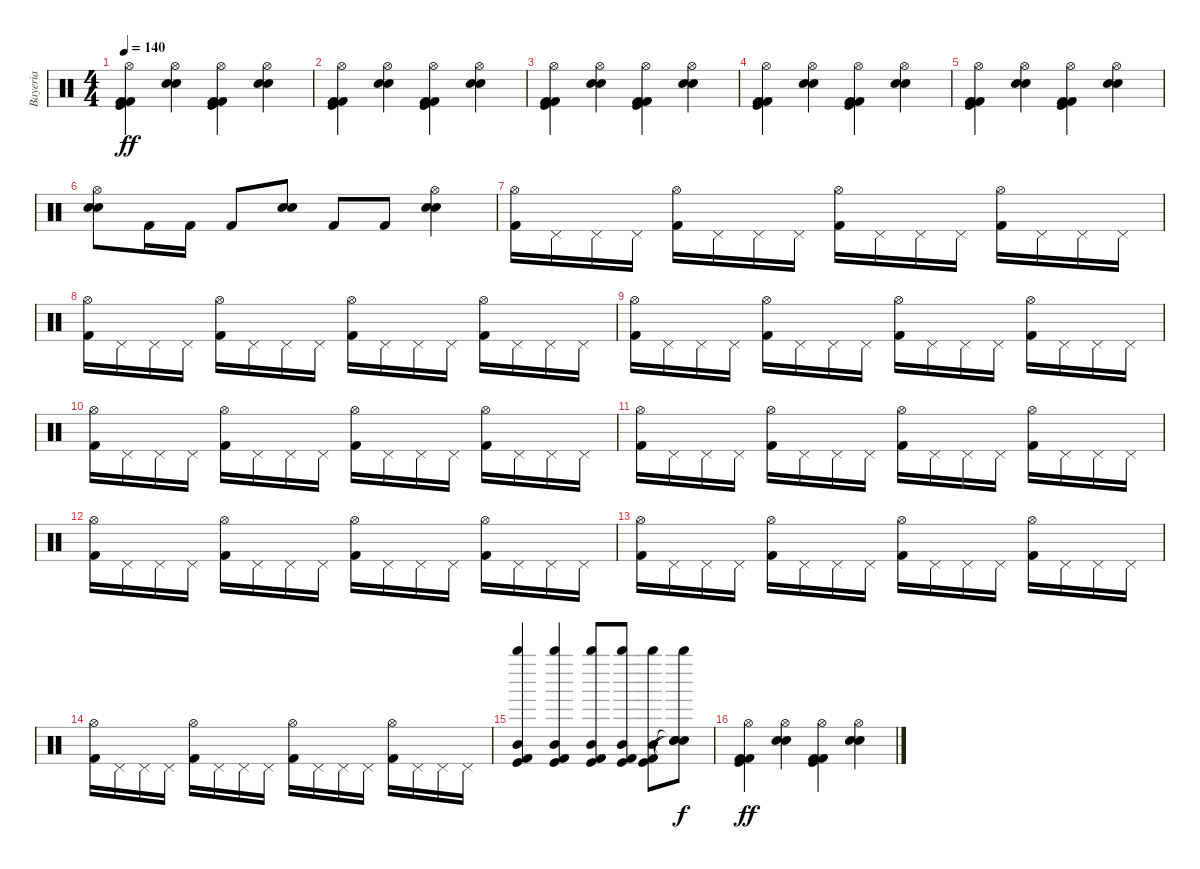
\track ("Bayeria" "Bayeria") {instrument percussion}
\staff {score}
\articulation defaults
\ts (4 4)
\tempo 140
\clef neutral
\ks c
("Kick (hit) 2" "Kick (hit)" "Kick (hit) 2" "Hi-Hat (open)").4{dy ff} ("Electric Snare (hit)" "Snare (hit) 2" "Hi-Hat (open)").4 ("Kick (hit) 2" "Kick (hit)" "Kick (hit) 2" "Hi-Hat (open)").4 ("Electric Snare (hit)" "Snare (hit) 2" "Hi-Hat (open)").4 |
("Kick (hit) 2" "Kick (hit)" "Kick (hit) 2" "Hi-Hat (open)").4 ("Electric Snare (hit)" "Snare (hit) 2" "Hi-Hat (open)").4 ("Kick (hit) 2" "Kick (hit)" "Kick (hit) 2" "Hi-Hat (open)").4 ("Electric Snare (hit)" "Snare (hit) 2" "Hi-Hat (open)").4 |
("Kick (hit) 2" "Kick (hit)" "Kick (hit) 2" "Hi-Hat (open)").4 ("Electric Snare (hit)" "Snare (hit) 2" "Hi-Hat (open)").4 ("Kick (hit) 2" "Kick (hit)" "Kick (hit) 2" "Hi-Hat (open)").4 ("Electric Snare (hit)" "Snare (hit) 2" "Hi-Hat (open)").4 |
("Kick (hit) 2" "Kick (hit)" "Kick (hit) 2" "Hi-Hat (open)").4 ("Electric Snare (hit)" "Snare (hit) 2" "Hi-Hat (open)").4 ("Kick (hit) 2" "Kick (hit)" "Kick (hit) 2" "Hi-Hat (open)").4 ("Electric Snare (hit)" "Snare (hit) 2" "Hi-Hat (open)").4 |
("Kick (hit) 2" "Kick (hit)" "Kick (hit) 2" "Hi-Hat (open)").4 ("Electric Snare (hit)" "Snare (hit) 2" "Hi-Hat (open)").4 ("Kick (hit) 2" "Kick (hit)" "Kick (hit) 2" "Hi-Hat (open)").4 ("Electric Snare (hit)" "Snare (hit) 2" "Hi-Hat (open)").4 |
("Electric Snare (hit)" "Snare (hit) 2" "Hi-Hat (open)").8 "Kick (hit) 2".16 "Kick (hit) 2".16 "Kick (hit) 2".8 ("Electric Snare (hit)" "Snare (hit) 2").8 "Kick (hit) 2".8 "Kick (hit) 2".8 ("Electric Snare (hit)" "Snare (hit) 2" "Hi-Hat (open)").4 |
("Hi-Hat (open)" "Kick (hit) 2").16 "Pedal Hi-Hat (hit)".16 "Pedal Hi-Hat (hit)".16 "Pedal Hi-Hat (hit)".16 ("Hi-Hat (open)" "Kick (hit) 2").16 "Pedal Hi-Hat (hit)".16 "Pedal Hi-Hat (hit)".16 "Pedal Hi-Hat (hit)".16 ("Hi-Hat (open)" "Kick (hit) 2").16 "Pedal Hi-Hat (hit)".16 "Pedal Hi-Hat (hit)".16 "Pedal Hi-Hat (hit)".16 ("Hi-Hat (open)" "Kick (hit) 2").16 "Pedal Hi-Hat (hit)".16 "Pedal Hi-Hat (hit)".16 "Pedal Hi-Hat (hit)".16 |
("Hi-Hat (open)" "Kick (hit) 2").16 "Pedal Hi-Hat (hit)".16 "Pedal Hi-Hat (hit)".16 "Pedal Hi-Hat (hit)".16 ("Hi-Hat (open)" "Kick (hit) 2").16 "Pedal Hi-Hat (hit)".16 "Pedal Hi-Hat (hit)".16 "Pedal Hi-Hat (hit)".16 ("Hi-Hat (open)" "Kick (hit) 2").16 "Pedal Hi-Hat (hit)".16 "Pedal Hi-Hat (hit)".16 "Pedal Hi-Hat (hit)".16 ("Hi-Hat (open)" "Kick (hit) 2").16 "Pedal Hi-Hat (hit)".16 "Pedal Hi-Hat (hit)".16 "Pedal Hi-Hat (hit)".16 |
("Hi-Hat (open)" "Kick (hit) 2").16 "Pedal Hi-Hat (hit)".16 "Pedal Hi-Hat (hit)".16 "Pedal Hi-Hat (hit)".16 ("Hi-Hat (open)" "Kick (hit) 2").16 "Pedal Hi-Hat (hit)".16 "Pedal Hi-Hat (hit)".16 "Pedal Hi-Hat (hit)".16 ("Hi-Hat (open)" "Kick (hit) 2").16 "Pedal Hi-Hat (hit)".16 "Pedal Hi-Hat (hit)".16 "Pedal Hi-Hat (hit)".16 ("Hi-Hat (open)" "Kick (hit) 2").16 "Pedal Hi-Hat (hit)".16 "Pedal Hi-Hat (hit)".16 "Pedal Hi-Hat (hit)".16 |
("Hi-Hat (open)" "Kick (hit) 2").16 "Pedal Hi-Hat (hit)".16 "Pedal Hi-Hat (hit)".16 "Pedal Hi-Hat (hit)".16 ("Hi-Hat (open)" "Kick (hit) 2").16 "Pedal Hi-Hat (hit)".16 "Pedal Hi-Hat (hit)".16 "Pedal Hi-Hat (hit)".16 ("Hi-Hat (open)" "Kick (hit) 2").16 "Pedal Hi-Hat (hit)".16 "Pedal Hi-Hat (hit)".16 "Pedal Hi-Hat (hit)".16 ("Hi-Hat (open)" "Kick (hit) 2").16 "Pedal Hi-Hat (hit)".16 "Pedal Hi-Hat (hit)".16 "Pedal Hi-Hat (hit)".16 |
("Hi-Hat (open)" "Kick (hit) 2").16 "Pedal Hi-Hat (hit)".16 "Pedal Hi-Hat (hit)".16 "Pedal Hi-Hat (hit)".16 ("Hi-Hat (open)" "Kick (hit) 2").16 "Pedal Hi-Hat (hit)".16 "Pedal Hi-Hat (hit)".16 "Pedal Hi-Hat (hit)".16 ("Hi-Hat (open)" "Kick (hit) 2").16 "Pedal Hi-Hat (hit)".16 "Pedal Hi-Hat (hit)".16 "Pedal Hi-Hat (hit)".16 ("Hi-Hat (open)" "Kick (hit) 2").16 "Pedal Hi-Hat (hit)".16 "Pedal Hi-Hat (hit)".16 "Pedal Hi-Hat (hit)".16 |
("Hi-Hat (open)" "Kick (hit) 2").16 "Pedal Hi-Hat (hit)".16 "Pedal Hi-Hat (hit)".16 "Pedal Hi-Hat (hit)".16 ("Hi-Hat (open)" "Kick (hit) 2").16 "Pedal Hi-Hat (hit)".16 "Pedal Hi-Hat (hit)".16 "Pedal Hi-Hat (hit)".16 ("Hi-Hat (open)" "Kick (hit) 2").16 "Pedal Hi-Hat (hit)".16 "Pedal Hi-Hat (hit)".16 "Pedal Hi-Hat (hit)".16 ("Hi-Hat (open)" "Kick (hit) 2").16 "Pedal Hi-Hat (hit)".16 "Pedal Hi-Hat (hit)".16 "Pedal Hi-Hat (hit)".16 |
("Hi-Hat (open)" "Kick (hit) 2").16 "Pedal Hi-Hat (hit)".16 "Pedal Hi-Hat (hit)".16 "Pedal Hi-Hat (hit)".16 ("Hi-Hat (open)" "Kick (hit) 2").16 "Pedal Hi-Hat (hit)".16 "Pedal Hi-Hat (hit)".16 "Pedal Hi-Hat (hit)".16 ("Hi-Hat (open)" "Kick (hit) 2").16 "Pedal Hi-Hat (hit)".16 "Pedal Hi-Hat (hit)".16 "Pedal Hi-Hat (hit)".16 ("Hi-Hat (open)" "Kick (hit) 2").16 "Pedal Hi-Hat (hit)".16 "Pedal Hi-Hat (hit)".16 "Pedal Hi-Hat (hit)".16 |
("Hi-Hat (open)" "Kick (hit) 2").16 "Pedal Hi-Hat (hit)".16 "Pedal Hi-Hat (hit)".16 "Pedal Hi-Hat (hit)".16 ("Hi-Hat (open)" "Kick (hit) 2").16 "Pedal Hi-Hat (hit)".16 "Pedal Hi-Hat (hit)".16 "Pedal Hi-Hat (hit)".16 ("Hi-Hat (open)" "Kick (hit) 2").16 "Pedal Hi-Hat (hit)".16 "Pedal Hi-Hat (hit)".16 "Pedal Hi-Hat (hit)".16 ("Hi-Hat (open)" "Kick (hit) 2").16 "Pedal Hi-Hat (hit)".16 "Pedal Hi-Hat (hit)".16 "Pedal Hi-Hat (hit)".16 |
("Whistle high (hit)" "Mid Tom (hit)" "Kick (hit)" "Kick (hit) 2").4 ("Whistle high (hit)" "Mid Tom (hit)" "Kick (hit)" "Kick (hit) 2").4 ("Whistle high (hit)" "Mid Tom (hit)" "Kick (hit)" "Kick (hit) 2").8 ("Whistle high (hit)" "Mid Tom (hit)" "Kick (hit)" "Kick (hit) 2").8 ("Whistle high (hit)" "Mid Tom (hit)" "Kick (hit)" "Kick (hit) 2").8 ("Whistle high (hit)" "Snare (hit)"{t} "Snare (hit)"{t} "Snare (hit)"{t}).8{dy f} |
("Kick (hit) 2" "Kick (hit)" "Kick (hit) 2" "Hi-Hat (open)").4{dy ff} ("Electric Snare (hit)" "Snare (hit) 2" "Hi-Hat (open)").4 ("Kick (hit) 2" "Kick (hit)" "Kick (hit) 2" "Hi-Hat (open)").4 ("Electric Snare (hit)" "Snare (hit) 2" "Hi-Hat (open)").4
